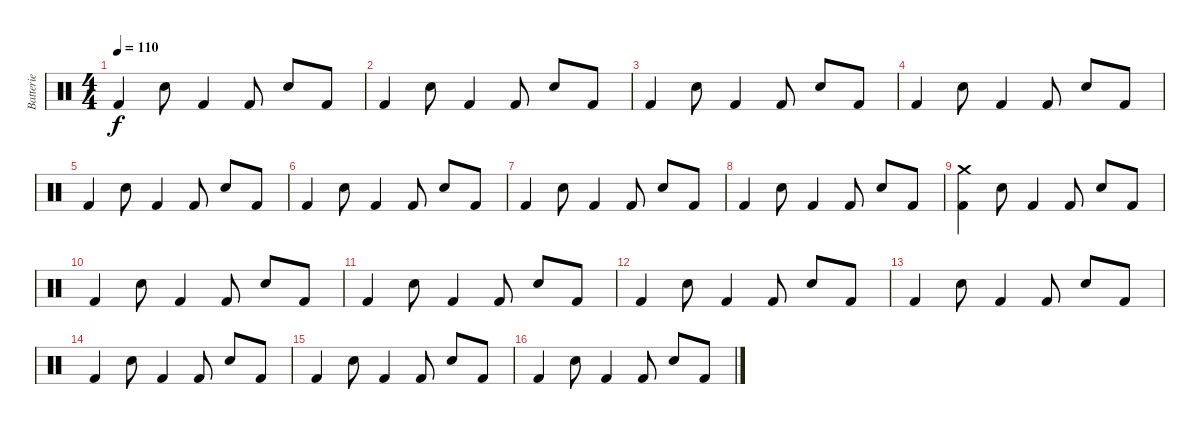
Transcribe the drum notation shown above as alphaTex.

\track ("Batterie" "Batterie") {instrument percussion}
\staff {score}
\articulation defaults
\ts (4 4)
\tempo 110
\clef neutral
\ks c "Kick (hit) 2".4{dy f} "Snare (hit) 2".8 "Kick (hit) 2".4 "Kick (hit) 2".8 "Snare (hit) 2".8 "Kick (hit) 2".8
|
"Kick (hit) 2".4 "Snare (hit) 2".8 "Kick (hit) 2".4 "Kick (hit) 2".8 "Snare (hit) 2".8 "Kick (hit) 2".8 |
"Kick (hit) 2".4 "Snare (hit) 2".8 "Kick (hit) 2".4 "Kick (hit) 2".8 "Snare (hit) 2".8 "Kick (hit) 2".8 |
"Kick (hit) 2".4 "Snare (hit) 2".8 "Kick (hit) 2".4 "Kick (hit) 2".8 "Snare (hit) 2".8 "Kick (hit) 2".8 |
"Kick (hit) 2".4 "Snare (hit) 2".8 "Kick (hit) 2".4 "Kick (hit) 2".8 "Snare (hit) 2".8 "Kick (hit) 2".8 |
"Kick (hit) 2".4 "Snare (hit) 2".8 "Kick (hit) 2".4 "Kick (hit) 2".8 "Snare (hit) 2".8 "Kick (hit) 2".8 |
"Kick (hit) 2".4 "Snare (hit) 2".8 "Kick (hit) 2".4 "Kick (hit) 2".8 "Snare (hit) 2".8 "Kick (hit) 2".8 |
"Kick (hit) 2".4 "Snare (hit) 2".8 "Kick (hit) 2".4 "Kick (hit) 2".8 "Snare (hit) 2".8 "Kick (hit) 2".8 |
("Crash medium (hit)" "Kick (hit) 2").4 "Snare (hit) 2".8 "Kick (hit) 2".4 "Kick (hit) 2".8 "Snare (hit) 2".8 "Kick (hit) 2".8 |
"Kick (hit) 2".4 "Snare (hit) 2".8 "Kick (hit) 2".4 "Kick (hit) 2".8 "Snare (hit) 2".8 "Kick (hit) 2".8 |
"Kick (hit) 2".4 "Snare (hit) 2".8 "Kick (hit) 2".4 "Kick (hit) 2".8 "Snare (hit) 2".8 "Kick (hit) 2".8 |
"Kick (hit) 2".4 "Snare (hit) 2".8 "Kick (hit) 2".4 "Kick (hit) 2".8 "Snare (hit) 2".8 "Kick (hit) 2".8 |
"Kick (hit) 2".4 "Snare (hit) 2".8 "Kick (hit) 2".4 "Kick (hit) 2".8 "Snare (hit) 2".8 "Kick (hit) 2".8 |
"Kick (hit) 2".4 "Snare (hit) 2".8 "Kick (hit) 2".4 "Kick (hit) 2".8 "Snare (hit) 2".8 "Kick (hit) 2".8 |
"Kick (hit) 2".4 "Snare (hit) 2".8 "Kick (hit) 2".4 "Kick (hit) 2".8 "Snare (hit) 2".8 "Kick (hit) 2".8 |
"Kick (hit) 2".4 "Snare (hit) 2".8 "Kick (hit) 2".4 "Kick (hit) 2".8 "Snare (hit) 2".8 "Kick (hit) 2".8
